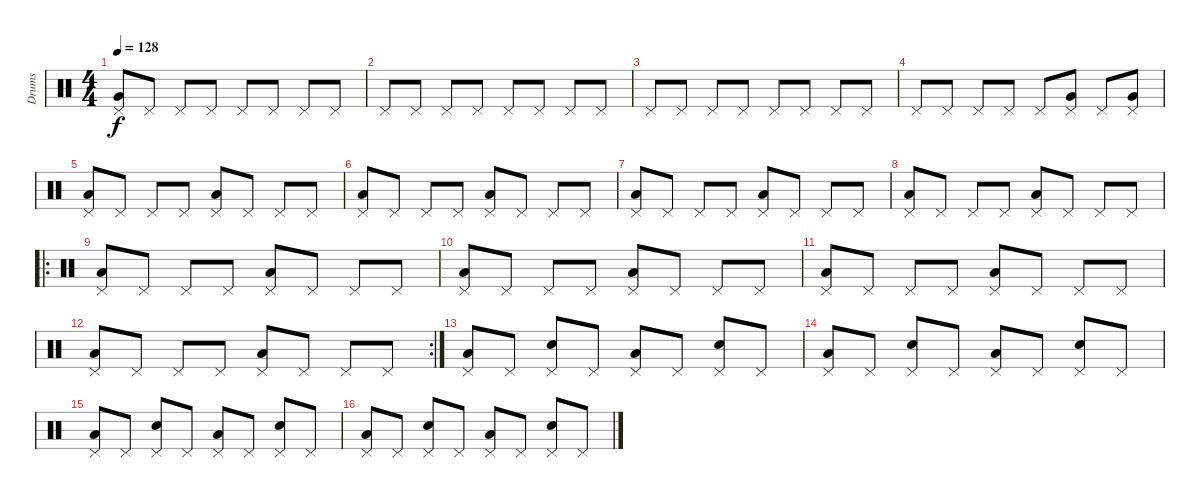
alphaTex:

\track ("Drums" "Drums") {instrument percussion}
\staff {score}
\articulation defaults
\ts (4 4)
\tempo 128
\clef neutral
\ks c
("Pedal Hi-Hat (hit)" "Very Low Tom (hit)").8{dy f} "Pedal Hi-Hat (hit)".8 "Pedal Hi-Hat (hit)".8 "Pedal Hi-Hat (hit)".8 "Pedal Hi-Hat (hit)".8 "Pedal Hi-Hat (hit)".8 "Pedal Hi-Hat (hit)".8 "Pedal Hi-Hat (hit)".8 |
"Pedal Hi-Hat (hit)".8 "Pedal Hi-Hat (hit)".8 "Pedal Hi-Hat (hit)".8 "Pedal Hi-Hat (hit)".8 "Pedal Hi-Hat (hit)".8 "Pedal Hi-Hat (hit)".8 "Pedal Hi-Hat (hit)".8 "Pedal Hi-Hat (hit)".8 |
"Pedal Hi-Hat (hit)".8 "Pedal Hi-Hat (hit)".8 "Pedal Hi-Hat (hit)".8 "Pedal Hi-Hat (hit)".8 "Pedal Hi-Hat (hit)".8 "Pedal Hi-Hat (hit)".8 "Pedal Hi-Hat (hit)".8 "Pedal Hi-Hat (hit)".8 |
"Pedal Hi-Hat (hit)".8 "Pedal Hi-Hat (hit)".8 "Pedal Hi-Hat (hit)".8 "Pedal Hi-Hat (hit)".8 "Pedal Hi-Hat (hit)".8 ("Pedal Hi-Hat (hit)" "Very Low Tom (hit)").8 "Pedal Hi-Hat (hit)".8 ("Pedal Hi-Hat (hit)" "Very Low Tom (hit)").8 |
("Pedal Hi-Hat (hit)" "Low Floor Tom (hit)").8 "Pedal Hi-Hat (hit)".8 "Pedal Hi-Hat (hit)".8 "Pedal Hi-Hat (hit)".8 ("Pedal Hi-Hat (hit)" "Low Floor Tom (hit)").8 "Pedal Hi-Hat (hit)".8 "Pedal Hi-Hat (hit)".8 "Pedal Hi-Hat (hit)".8 |
("Pedal Hi-Hat (hit)" "Low Floor Tom (hit)").8 "Pedal Hi-Hat (hit)".8 "Pedal Hi-Hat (hit)".8 "Pedal Hi-Hat (hit)".8 ("Pedal Hi-Hat (hit)" "Low Floor Tom (hit)").8 "Pedal Hi-Hat (hit)".8 "Pedal Hi-Hat (hit)".8 "Pedal Hi-Hat (hit)".8 |
("Pedal Hi-Hat (hit)" "Low Floor Tom (hit)").8 "Pedal Hi-Hat (hit)".8 "Pedal Hi-Hat (hit)".8 "Pedal Hi-Hat (hit)".8 ("Pedal Hi-Hat (hit)" "Low Floor Tom (hit)").8 "Pedal Hi-Hat (hit)".8 "Pedal Hi-Hat (hit)".8 "Pedal Hi-Hat (hit)".8 |
("Pedal Hi-Hat (hit)" "Low Floor Tom (hit)").8 "Pedal Hi-Hat (hit)".8 "Pedal Hi-Hat (hit)".8 "Pedal Hi-Hat (hit)".8 ("Pedal Hi-Hat (hit)" "Low Floor Tom (hit)").8 "Pedal Hi-Hat (hit)".8 "Pedal Hi-Hat (hit)".8 "Pedal Hi-Hat (hit)".8 |
\ro
("Pedal Hi-Hat (hit)" "Low Floor Tom (hit)").8 "Pedal Hi-Hat (hit)".8 "Pedal Hi-Hat (hit)".8 "Pedal Hi-Hat (hit)".8 ("Pedal Hi-Hat (hit)" "Low Floor Tom (hit)").8 "Pedal Hi-Hat (hit)".8 "Pedal Hi-Hat (hit)".8 "Pedal Hi-Hat (hit)".8 |
("Pedal Hi-Hat (hit)" "Low Floor Tom (hit)").8 "Pedal Hi-Hat (hit)".8 "Pedal Hi-Hat (hit)".8 "Pedal Hi-Hat (hit)".8 ("Pedal Hi-Hat (hit)" "Low Floor Tom (hit)").8 "Pedal Hi-Hat (hit)".8 "Pedal Hi-Hat (hit)".8 "Pedal Hi-Hat (hit)".8 |
("Pedal Hi-Hat (hit)" "Low Floor Tom (hit)").8 "Pedal Hi-Hat (hit)".8 "Pedal Hi-Hat (hit)".8 "Pedal Hi-Hat (hit)".8 ("Pedal Hi-Hat (hit)" "Low Floor Tom (hit)").8 "Pedal Hi-Hat (hit)".8 "Pedal Hi-Hat (hit)".8 "Pedal Hi-Hat (hit)".8 |
\rc 2
("Pedal Hi-Hat (hit)" "Low Floor Tom (hit)").8 "Pedal Hi-Hat (hit)".8 "Pedal Hi-Hat (hit)".8 "Pedal Hi-Hat (hit)".8 ("Pedal Hi-Hat (hit)" "Low Floor Tom (hit)").8 "Pedal Hi-Hat (hit)".8 "Pedal Hi-Hat (hit)".8 "Pedal Hi-Hat (hit)".8 |
("Pedal Hi-Hat (hit)" "Low Floor Tom (hit)").8 "Pedal Hi-Hat (hit)".8 ("Pedal Hi-Hat (hit)" "Electric Snare (hit)").8 "Pedal Hi-Hat (hit)".8 ("Pedal Hi-Hat (hit)" "Low Floor Tom (hit)").8 "Pedal Hi-Hat (hit)".8 ("Pedal Hi-Hat (hit)" "Electric Snare (hit)").8 "Pedal Hi-Hat (hit)".8 |
("Pedal Hi-Hat (hit)" "Low Floor Tom (hit)").8 "Pedal Hi-Hat (hit)".8 ("Pedal Hi-Hat (hit)" "Electric Snare (hit)").8 "Pedal Hi-Hat (hit)".8 ("Pedal Hi-Hat (hit)" "Low Floor Tom (hit)").8 "Pedal Hi-Hat (hit)".8 ("Pedal Hi-Hat (hit)" "Electric Snare (hit)").8 "Pedal Hi-Hat (hit)".8 |
("Pedal Hi-Hat (hit)" "Low Floor Tom (hit)").8 "Pedal Hi-Hat (hit)".8 ("Pedal Hi-Hat (hit)" "Electric Snare (hit)").8 "Pedal Hi-Hat (hit)".8 ("Pedal Hi-Hat (hit)" "Low Floor Tom (hit)").8 "Pedal Hi-Hat (hit)".8 ("Pedal Hi-Hat (hit)" "Electric Snare (hit)").8 "Pedal Hi-Hat (hit)".8 |
("Pedal Hi-Hat (hit)" "Low Floor Tom (hit)").8 "Pedal Hi-Hat (hit)".8 ("Pedal Hi-Hat (hit)" "Electric Snare (hit)").8 "Pedal Hi-Hat (hit)".8 ("Pedal Hi-Hat (hit)" "Low Floor Tom (hit)").8 "Pedal Hi-Hat (hit)".8 ("Pedal Hi-Hat (hit)" "Electric Snare (hit)").8 "Pedal Hi-Hat (hit)".8
